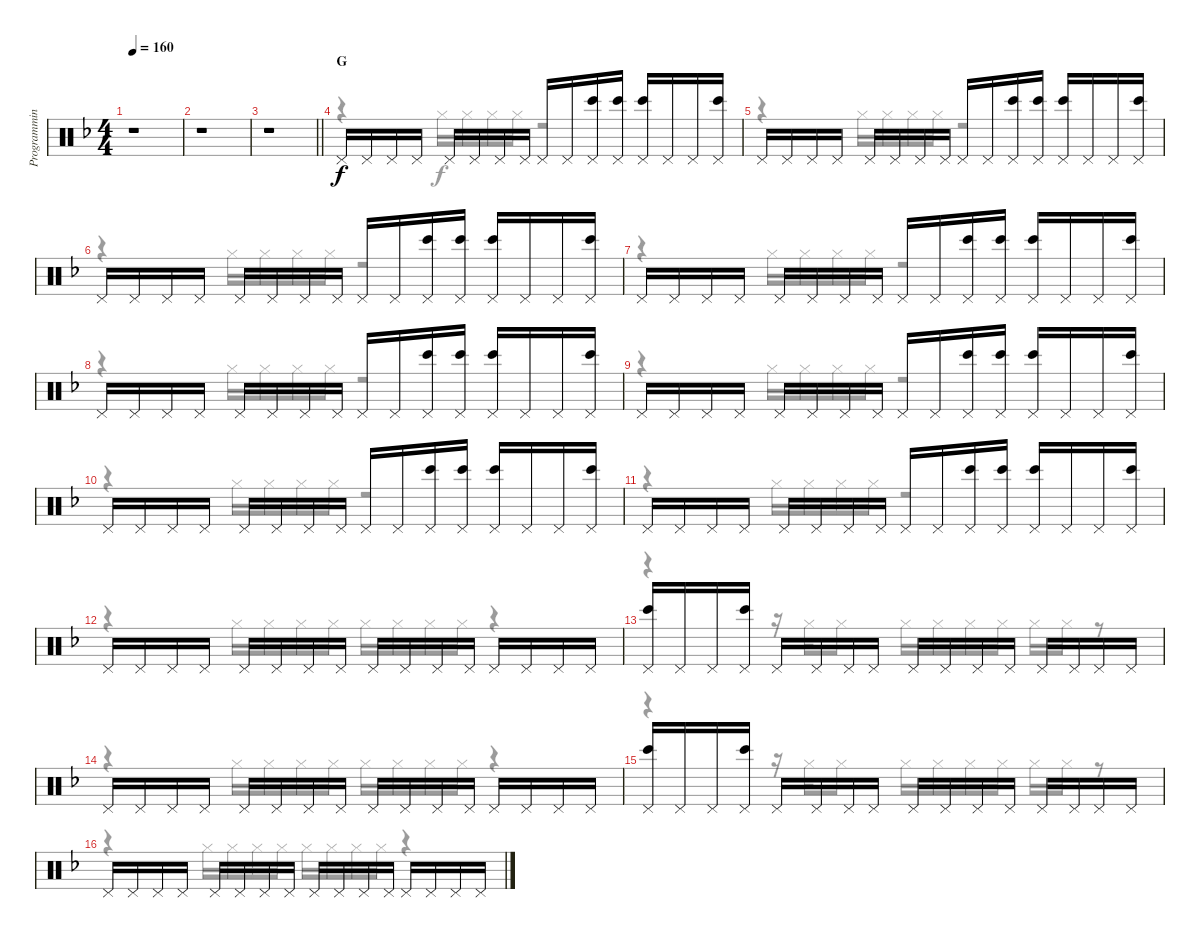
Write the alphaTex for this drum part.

\track ("Programming" "Programmin") {instrument percussion}
\staff {score}
\articulation defaults
\voice
\ts (4 4)
\tempo 160
\clef neutral
\ks f
r.1{dy f} |
r.1 |
\barLineRight lightlight
r.1 |
\section ("" "G")
"Pedal Hi-Hat (hit)".16 "Pedal Hi-Hat (hit)".16 "Pedal Hi-Hat (hit)".16 "Pedal Hi-Hat (hit)".16 "Pedal Hi-Hat (hit)".16 "Pedal Hi-Hat (hit)".16 "Pedal Hi-Hat (hit)".16 "Pedal Hi-Hat (hit)".16 "Pedal Hi-Hat (hit)".16 "Pedal Hi-Hat (hit)".16 ("Pedal Hi-Hat (hit)" "Bongo High (hit)").16 ("Pedal Hi-Hat (hit)" "Bongo High (hit)").16 ("Pedal Hi-Hat (hit)" "Bongo High (hit)").16 "Pedal Hi-Hat (hit)".16 "Pedal Hi-Hat (hit)".16 ("Pedal Hi-Hat (hit)" "Bongo High (hit)").16 |
"Pedal Hi-Hat (hit)".16 "Pedal Hi-Hat (hit)".16 "Pedal Hi-Hat (hit)".16 "Pedal Hi-Hat (hit)".16 "Pedal Hi-Hat (hit)".16 "Pedal Hi-Hat (hit)".16 "Pedal Hi-Hat (hit)".16 "Pedal Hi-Hat (hit)".16 "Pedal Hi-Hat (hit)".16 "Pedal Hi-Hat (hit)".16 ("Pedal Hi-Hat (hit)" "Bongo High (hit)").16 ("Pedal Hi-Hat (hit)" "Bongo High (hit)").16 ("Pedal Hi-Hat (hit)" "Bongo High (hit)").16 "Pedal Hi-Hat (hit)".16 "Pedal Hi-Hat (hit)".16 ("Pedal Hi-Hat (hit)" "Bongo High (hit)").16 |
"Pedal Hi-Hat (hit)".16 "Pedal Hi-Hat (hit)".16 "Pedal Hi-Hat (hit)".16 "Pedal Hi-Hat (hit)".16 "Pedal Hi-Hat (hit)".16 "Pedal Hi-Hat (hit)".16 "Pedal Hi-Hat (hit)".16 "Pedal Hi-Hat (hit)".16 "Pedal Hi-Hat (hit)".16 "Pedal Hi-Hat (hit)".16 ("Pedal Hi-Hat (hit)" "Bongo High (hit)").16 ("Pedal Hi-Hat (hit)" "Bongo High (hit)").16 ("Pedal Hi-Hat (hit)" "Bongo High (hit)").16 "Pedal Hi-Hat (hit)".16 "Pedal Hi-Hat (hit)".16 ("Pedal Hi-Hat (hit)" "Bongo High (hit)").16 |
"Pedal Hi-Hat (hit)".16 "Pedal Hi-Hat (hit)".16 "Pedal Hi-Hat (hit)".16 "Pedal Hi-Hat (hit)".16 "Pedal Hi-Hat (hit)".16 "Pedal Hi-Hat (hit)".16 "Pedal Hi-Hat (hit)".16 "Pedal Hi-Hat (hit)".16 "Pedal Hi-Hat (hit)".16 "Pedal Hi-Hat (hit)".16 ("Pedal Hi-Hat (hit)" "Bongo High (hit)").16 ("Pedal Hi-Hat (hit)" "Bongo High (hit)").16 ("Pedal Hi-Hat (hit)" "Bongo High (hit)").16 "Pedal Hi-Hat (hit)".16 "Pedal Hi-Hat (hit)".16 ("Pedal Hi-Hat (hit)" "Bongo High (hit)").16 |
"Pedal Hi-Hat (hit)".16 "Pedal Hi-Hat (hit)".16 "Pedal Hi-Hat (hit)".16 "Pedal Hi-Hat (hit)".16 "Pedal Hi-Hat (hit)".16 "Pedal Hi-Hat (hit)".16 "Pedal Hi-Hat (hit)".16 "Pedal Hi-Hat (hit)".16 "Pedal Hi-Hat (hit)".16 "Pedal Hi-Hat (hit)".16 ("Pedal Hi-Hat (hit)" "Bongo High (hit)").16 ("Pedal Hi-Hat (hit)" "Bongo High (hit)").16 ("Pedal Hi-Hat (hit)" "Bongo High (hit)").16 "Pedal Hi-Hat (hit)".16 "Pedal Hi-Hat (hit)".16 ("Pedal Hi-Hat (hit)" "Bongo High (hit)").16 |
"Pedal Hi-Hat (hit)".16 "Pedal Hi-Hat (hit)".16 "Pedal Hi-Hat (hit)".16 "Pedal Hi-Hat (hit)".16 "Pedal Hi-Hat (hit)".16 "Pedal Hi-Hat (hit)".16 "Pedal Hi-Hat (hit)".16 "Pedal Hi-Hat (hit)".16 "Pedal Hi-Hat (hit)".16 "Pedal Hi-Hat (hit)".16 ("Pedal Hi-Hat (hit)" "Bongo High (hit)").16 ("Pedal Hi-Hat (hit)" "Bongo High (hit)").16 ("Pedal Hi-Hat (hit)" "Bongo High (hit)").16 "Pedal Hi-Hat (hit)".16 "Pedal Hi-Hat (hit)".16 ("Pedal Hi-Hat (hit)" "Bongo High (hit)").16 |
"Pedal Hi-Hat (hit)".16 "Pedal Hi-Hat (hit)".16 "Pedal Hi-Hat (hit)".16 "Pedal Hi-Hat (hit)".16 "Pedal Hi-Hat (hit)".16 "Pedal Hi-Hat (hit)".16 "Pedal Hi-Hat (hit)".16 "Pedal Hi-Hat (hit)".16 "Pedal Hi-Hat (hit)".16 "Pedal Hi-Hat (hit)".16 ("Pedal Hi-Hat (hit)" "Bongo High (hit)").16 ("Pedal Hi-Hat (hit)" "Bongo High (hit)").16 ("Pedal Hi-Hat (hit)" "Bongo High (hit)").16 "Pedal Hi-Hat (hit)".16 "Pedal Hi-Hat (hit)".16 ("Pedal Hi-Hat (hit)" "Bongo High (hit)").16 |
"Pedal Hi-Hat (hit)".16 "Pedal Hi-Hat (hit)".16 "Pedal Hi-Hat (hit)".16 "Pedal Hi-Hat (hit)".16 "Pedal Hi-Hat (hit)".16 "Pedal Hi-Hat (hit)".16 "Pedal Hi-Hat (hit)".16 "Pedal Hi-Hat (hit)".16 "Pedal Hi-Hat (hit)".16 "Pedal Hi-Hat (hit)".16 ("Pedal Hi-Hat (hit)" "Bongo High (hit)").16 ("Pedal Hi-Hat (hit)" "Bongo High (hit)").16 ("Pedal Hi-Hat (hit)" "Bongo High (hit)").16 "Pedal Hi-Hat (hit)".16 "Pedal Hi-Hat (hit)".16 ("Pedal Hi-Hat (hit)" "Bongo High (hit)").16 |
"Pedal Hi-Hat (hit)".16 "Pedal Hi-Hat (hit)".16 "Pedal Hi-Hat (hit)".16 "Pedal Hi-Hat (hit)".16 "Pedal Hi-Hat (hit)".16 "Pedal Hi-Hat (hit)".16 "Pedal Hi-Hat (hit)".16 "Pedal Hi-Hat (hit)".16 "Pedal Hi-Hat (hit)".16 "Pedal Hi-Hat (hit)".16 "Pedal Hi-Hat (hit)".16 "Pedal Hi-Hat (hit)".16 "Pedal Hi-Hat (hit)".16 "Pedal Hi-Hat (hit)".16 "Pedal Hi-Hat (hit)".16 "Pedal Hi-Hat (hit)".16 |
("Pedal Hi-Hat (hit)" "Bongo High (hit)").16 "Pedal Hi-Hat (hit)".16 "Pedal Hi-Hat (hit)".16 ("Pedal Hi-Hat (hit)" "Bongo High (hit)").16 "Pedal Hi-Hat (hit)".16 "Pedal Hi-Hat (hit)".16 "Pedal Hi-Hat (hit)".16 "Pedal Hi-Hat (hit)".16 "Pedal Hi-Hat (hit)".16 "Pedal Hi-Hat (hit)".16 "Pedal Hi-Hat (hit)".16 "Pedal Hi-Hat (hit)".16 "Pedal Hi-Hat (hit)".16 "Pedal Hi-Hat (hit)".16 "Pedal Hi-Hat (hit)".16 "Pedal Hi-Hat (hit)".16 |
"Pedal Hi-Hat (hit)".16 "Pedal Hi-Hat (hit)".16 "Pedal Hi-Hat (hit)".16 "Pedal Hi-Hat (hit)".16 "Pedal Hi-Hat (hit)".16 "Pedal Hi-Hat (hit)".16 "Pedal Hi-Hat (hit)".16 "Pedal Hi-Hat (hit)".16 "Pedal Hi-Hat (hit)".16 "Pedal Hi-Hat (hit)".16 "Pedal Hi-Hat (hit)".16 "Pedal Hi-Hat (hit)".16 "Pedal Hi-Hat (hit)".16 "Pedal Hi-Hat (hit)".16 "Pedal Hi-Hat (hit)".16 "Pedal Hi-Hat (hit)".16 |
("Pedal Hi-Hat (hit)" "Bongo High (hit)").16 "Pedal Hi-Hat (hit)".16 "Pedal Hi-Hat (hit)".16 ("Pedal Hi-Hat (hit)" "Bongo High (hit)").16 "Pedal Hi-Hat (hit)".16 "Pedal Hi-Hat (hit)".16 "Pedal Hi-Hat (hit)".16 "Pedal Hi-Hat (hit)".16 "Pedal Hi-Hat (hit)".16 "Pedal Hi-Hat (hit)".16 "Pedal Hi-Hat (hit)".16 "Pedal Hi-Hat (hit)".16 "Pedal Hi-Hat (hit)".16 "Pedal Hi-Hat (hit)".16 "Pedal Hi-Hat (hit)".16 "Pedal Hi-Hat (hit)".16 |
"Pedal Hi-Hat (hit)".16 "Pedal Hi-Hat (hit)".16 "Pedal Hi-Hat (hit)".16 "Pedal Hi-Hat (hit)".16 "Pedal Hi-Hat (hit)".16 "Pedal Hi-Hat (hit)".16 "Pedal Hi-Hat (hit)".16 "Pedal Hi-Hat (hit)".16 "Pedal Hi-Hat (hit)".16 "Pedal Hi-Hat (hit)".16 "Pedal Hi-Hat (hit)".16 "Pedal Hi-Hat (hit)".16 "Pedal Hi-Hat (hit)".16 "Pedal Hi-Hat (hit)".16 "Pedal Hi-Hat (hit)".16 "Pedal Hi-Hat (hit)".16
\voice
\clef neutral
\ottava regular
\simile none
\ks f
r.1{dy f} |
r.1 |
\barLineRight lightlight
r.1 |
r.4 "Hi-Hat (closed)".16 "Hi-Hat (closed)".16 "Hi-Hat (closed)".16 "Hi-Hat (closed)".16 r.2 |
r.4 "Hi-Hat (closed)".16 "Hi-Hat (closed)".16 "Hi-Hat (closed)".16 "Hi-Hat (closed)".16 r.2 |
r.4 "Hi-Hat (closed)".16 "Hi-Hat (closed)".16 "Hi-Hat (closed)".16 "Hi-Hat (closed)".16 r.2 |
r.4 "Hi-Hat (closed)".16 "Hi-Hat (closed)".16 "Hi-Hat (closed)".16 "Hi-Hat (closed)".16 r.2 |
r.4 "Hi-Hat (closed)".16 "Hi-Hat (closed)".16 "Hi-Hat (closed)".16 "Hi-Hat (closed)".16 r.2 |
r.4 "Hi-Hat (closed)".16 "Hi-Hat (closed)".16 "Hi-Hat (closed)".16 "Hi-Hat (closed)".16 r.2 |
r.4 "Hi-Hat (closed)".16 "Hi-Hat (closed)".16 "Hi-Hat (closed)".16 "Hi-Hat (closed)".16 r.2 |
r.4 "Hi-Hat (closed)".16 "Hi-Hat (closed)".16 "Hi-Hat (closed)".16 "Hi-Hat (closed)".16 r.2 |
r.4 "Hi-Hat (closed)".16 "Hi-Hat (closed)".16 "Hi-Hat (closed)".16 "Hi-Hat (closed)".16 "Hi-Hat (closed)".16 "Hi-Hat (closed)".16 "Hi-Hat (closed)".16 "Hi-Hat (closed)".16 r.4 |
r.4 r.16 "Hi-Hat (closed)".16 "Hi-Hat (closed)".8 "Hi-Hat (closed)".16 "Hi-Hat (closed)".16 "Hi-Hat (closed)".16 "Hi-Hat (closed)".16 "Hi-Hat (closed)".16 "Hi-Hat (closed)".16 r.8 |
r.4 "Hi-Hat (closed)".16 "Hi-Hat (closed)".16 "Hi-Hat (closed)".16 "Hi-Hat (closed)".16 "Hi-Hat (closed)".16 "Hi-Hat (closed)".16 "Hi-Hat (closed)".16 "Hi-Hat (closed)".16 r.4 |
r.4 r.16 "Hi-Hat (closed)".16 "Hi-Hat (closed)".8 "Hi-Hat (closed)".16 "Hi-Hat (closed)".16 "Hi-Hat (closed)".16 "Hi-Hat (closed)".16 "Hi-Hat (closed)".16 "Hi-Hat (closed)".16 r.8 |
r.4 "Hi-Hat (closed)".16 "Hi-Hat (closed)".16 "Hi-Hat (closed)".16 "Hi-Hat (closed)".16 "Hi-Hat (closed)".16 "Hi-Hat (closed)".16 "Hi-Hat (closed)".16 "Hi-Hat (closed)".16 r.4
